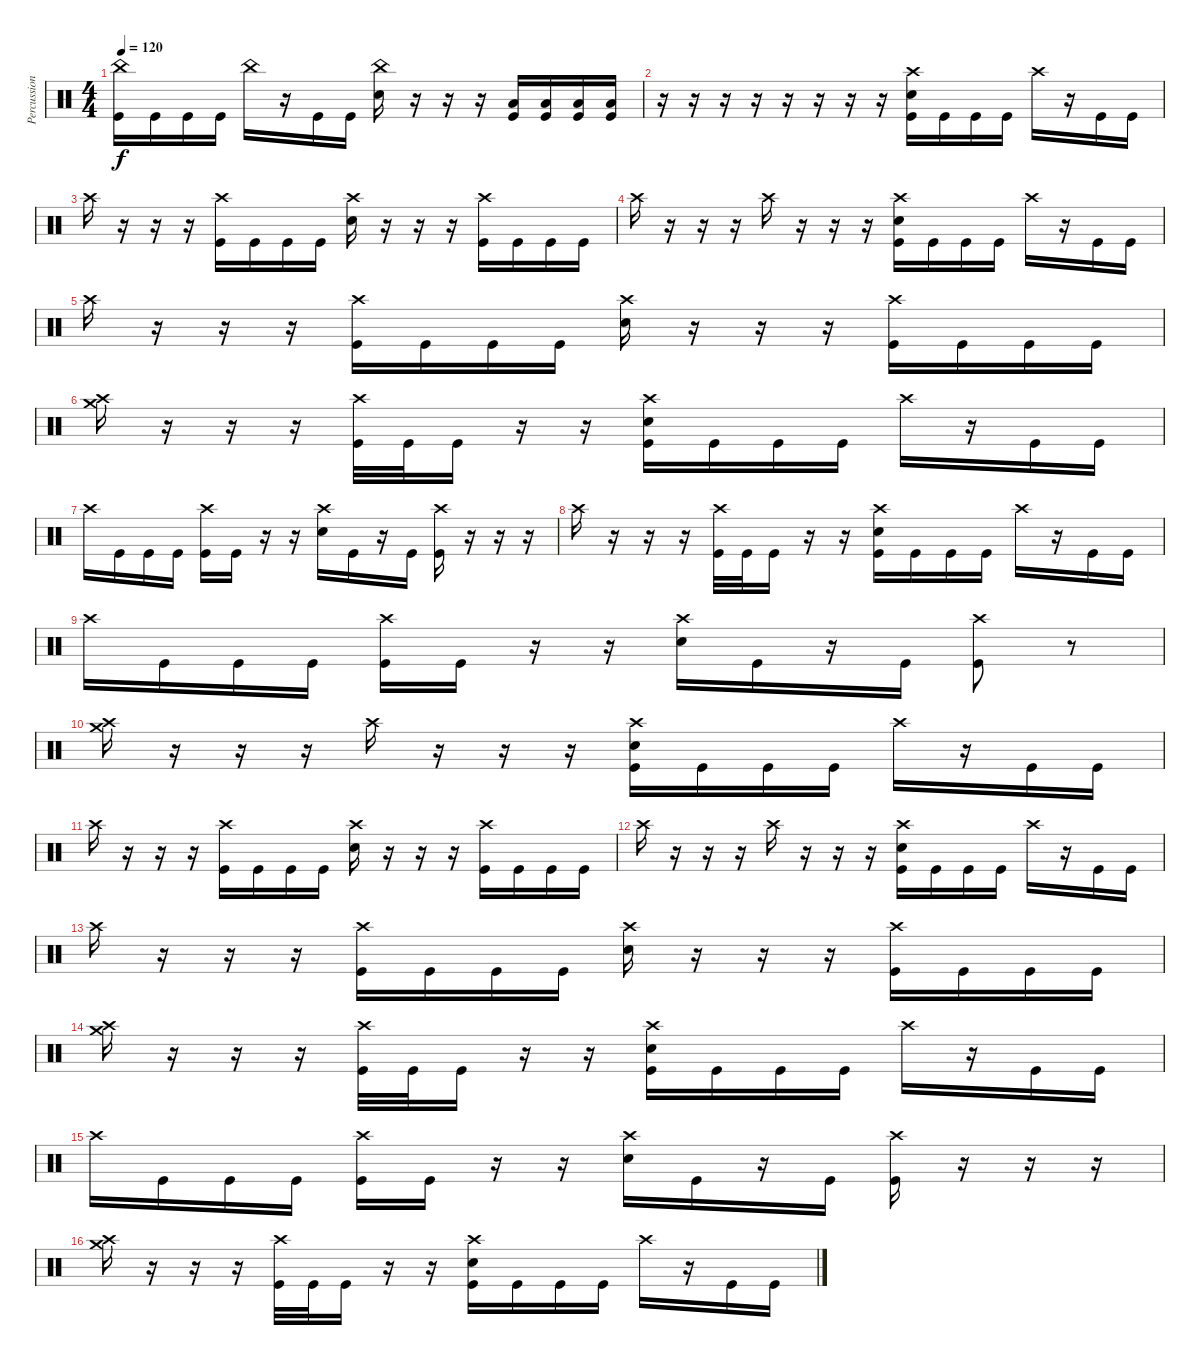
\track ("Percussion" "Percussion") {instrument percussion}
\staff {score}
\articulation defaults
\ts (4 4)
\tempo 120
\clef neutral
\ks c
("China (hit)" "Kick (hit)").16{dy f} "Kick (hit)".16 "Kick (hit)".16 "Kick (hit)".16 "China (hit)".16 r.16 "Kick (hit)".16 "Kick (hit)".16 ("China (hit)" "Snare (hit) 2").16 r.16 r.16 r.16 ("Low Tom (hit)" "Kick (hit)").16 ("Low Tom (hit)" "Kick (hit)").16 ("Low Tom (hit)" "Kick (hit)").16 ("Low Tom (hit)" "Kick (hit)").16 |
r.16 r.16 r.16 r.16 r.16 r.16 r.16 r.16 ("Crash high (hit)" "Snare (hit) 2" "Kick (hit)").16 "Kick (hit)".16 "Kick (hit)".16 "Kick (hit)".16 "Crash high (hit)".16 r.16 "Kick (hit)".16 "Kick (hit)".16 |
"Crash high (hit)".16 r.16 r.16 r.16 ("Crash high (hit)" "Kick (hit)").16 "Kick (hit)".16 "Kick (hit)".16 "Kick (hit)".16 ("Crash high (hit)" "Snare (hit) 2").16 r.16 r.16 r.16 ("Crash high (hit)" "Kick (hit)").16 "Kick (hit)".16 "Kick (hit)".16 "Kick (hit)".16 |
"Crash high (hit)".16 r.16 r.16 r.16 "Crash high (hit)".16 r.16 r.16 r.16 ("Crash high (hit)" "Snare (hit) 2" "Kick (hit)").16 "Kick (hit)".16 "Kick (hit)".16 "Kick (hit)".16 "Crash high (hit)".16 r.16 "Kick (hit)".16 "Kick (hit)".16 |
"Crash high (hit)".16 r.16 r.16 r.16 ("Crash high (hit)" "Kick (hit)").16 "Kick (hit)".16 "Kick (hit)".16 "Kick (hit)".16 ("Crash high (hit)" "Snare (hit) 2").16 r.16 r.16 r.16 ("Crash high (hit)" "Kick (hit)").16 "Kick (hit)".16 "Kick (hit)".16 "Kick (hit)".16 |
("Crash medium (hit)" "Crash high (hit)").16 r.16 r.16 r.16 ("Crash high (hit)" "Kick (hit)").32 "Kick (hit)".32 "Kick (hit)".16 r.16 r.16 ("Crash high (hit)" "Snare (hit) 2" "Kick (hit)").16 "Kick (hit)".16 "Kick (hit)".16 "Kick (hit)".16 "Crash high (hit)".16 r.16 "Kick (hit)".16 "Kick (hit)".16 |
"Crash high (hit)".16 "Kick (hit)".16 "Kick (hit)".16 "Kick (hit)".16 ("Crash high (hit)" "Kick (hit)").16 "Kick (hit)".16 r.16 r.16 ("Crash high (hit)" "Snare (hit) 2").16 "Kick (hit)".16 r.16 "Kick (hit)".16 ("Crash high (hit)" "Kick (hit)").16 r.16 r.16 r.16 |
"Crash high (hit)".16 r.16 r.16 r.16 ("Crash high (hit)" "Kick (hit)").32 "Kick (hit)".32 "Kick (hit)".16 r.16 r.16 ("Crash high (hit)" "Snare (hit) 2" "Kick (hit)").16 "Kick (hit)".16 "Kick (hit)".16 "Kick (hit)".16 "Crash high (hit)".16 r.16 "Kick (hit)".16 "Kick (hit)".16 |
"Crash high (hit)".16 "Kick (hit)".16 "Kick (hit)".16 "Kick (hit)".16 ("Crash high (hit)" "Kick (hit)").16 "Kick (hit)".16 r.16 r.16 ("Crash high (hit)" "Snare (hit) 2").16 "Kick (hit)".16 r.16 "Kick (hit)".16 ("Crash high (hit)" "Kick (hit)").8 r.8 |
("Crash medium (hit)" "Crash high (hit)").16 r.16 r.16 r.16 "Crash high (hit)".16 r.16 r.16 r.16 ("Crash high (hit)" "Snare (hit) 2" "Kick (hit)").16 "Kick (hit)".16 "Kick (hit)".16 "Kick (hit)".16 "Crash high (hit)".16 r.16 "Kick (hit)".16 "Kick (hit)".16 |
"Crash high (hit)".16 r.16 r.16 r.16 ("Crash high (hit)" "Kick (hit)").16 "Kick (hit)".16 "Kick (hit)".16 "Kick (hit)".16 ("Crash high (hit)" "Snare (hit) 2").16 r.16 r.16 r.16 ("Crash high (hit)" "Kick (hit)").16 "Kick (hit)".16 "Kick (hit)".16 "Kick (hit)".16 |
"Crash high (hit)".16 r.16 r.16 r.16 "Crash high (hit)".16 r.16 r.16 r.16 ("Crash high (hit)" "Snare (hit) 2" "Kick (hit)").16 "Kick (hit)".16 "Kick (hit)".16 "Kick (hit)".16 "Crash high (hit)".16 r.16 "Kick (hit)".16 "Kick (hit)".16 |
"Crash high (hit)".16 r.16 r.16 r.16 ("Crash high (hit)" "Kick (hit)").16 "Kick (hit)".16 "Kick (hit)".16 "Kick (hit)".16 ("Crash high (hit)" "Snare (hit) 2").16 r.16 r.16 r.16 ("Crash high (hit)" "Kick (hit)").16 "Kick (hit)".16 "Kick (hit)".16 "Kick (hit)".16 |
("Crash medium (hit)" "Crash high (hit)").16 r.16 r.16 r.16 ("Crash high (hit)" "Kick (hit)").32 "Kick (hit)".32 "Kick (hit)".16 r.16 r.16 ("Crash high (hit)" "Snare (hit) 2" "Kick (hit)").16 "Kick (hit)".16 "Kick (hit)".16 "Kick (hit)".16 "Crash high (hit)".16 r.16 "Kick (hit)".16 "Kick (hit)".16 |
"Crash high (hit)".16 "Kick (hit)".16 "Kick (hit)".16 "Kick (hit)".16 ("Crash high (hit)" "Kick (hit)").16 "Kick (hit)".16 r.16 r.16 ("Crash high (hit)" "Snare (hit) 2").16 "Kick (hit)".16 r.16 "Kick (hit)".16 ("Crash high (hit)" "Kick (hit)").16 r.16 r.16 r.16 |
("Crash medium (hit)" "Crash high (hit)").16 r.16 r.16 r.16 ("Crash high (hit)" "Kick (hit)").32 "Kick (hit)".32 "Kick (hit)".16 r.16 r.16 ("Crash high (hit)" "Snare (hit) 2" "Kick (hit)").16 "Kick (hit)".16 "Kick (hit)".16 "Kick (hit)".16 "Crash high (hit)".16 r.16 "Kick (hit)".16 "Kick (hit)".16
